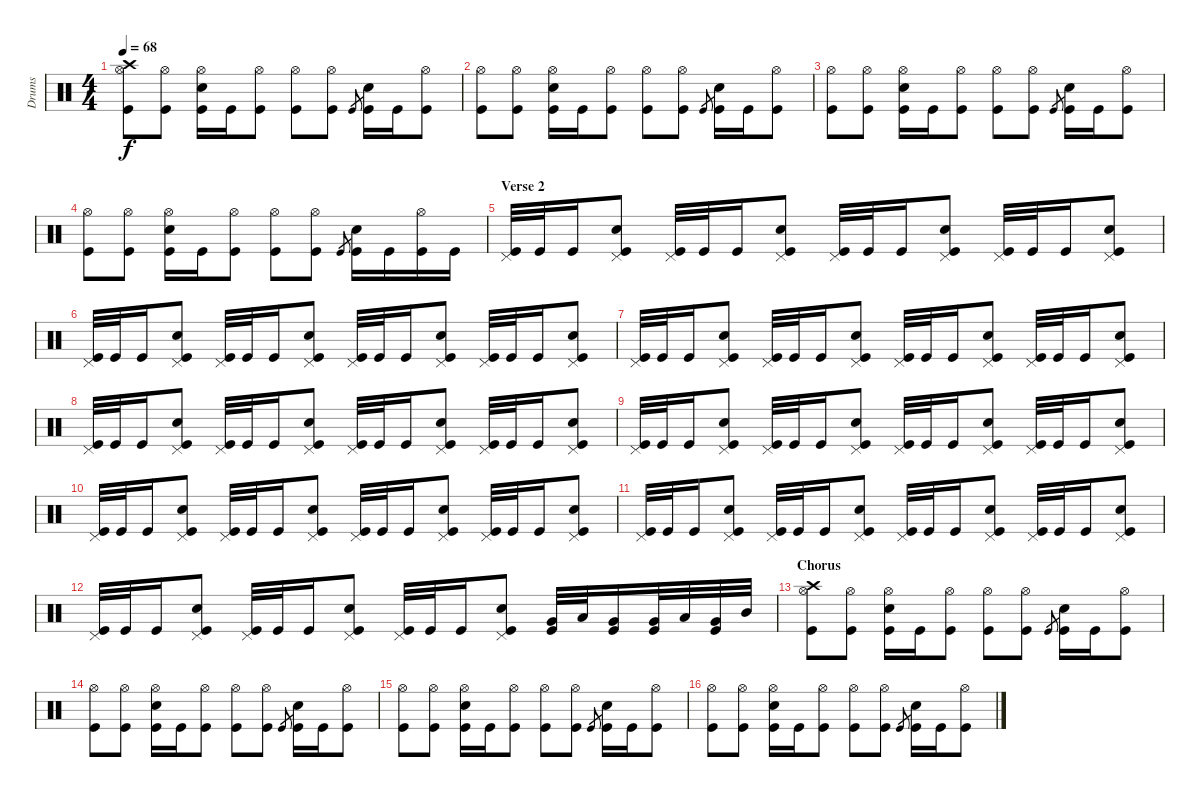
\track ("Drums" "Drums") {instrument percussion}
\staff {score}
\articulation defaults
\ts (4 4)
\section ("" "")
\tempo 68
\clef neutral
\ks c
("Crash high (hit)" "Hi-Hat (open)" "Kick (hit)").8{dy f} ("Hi-Hat (open)" "Kick (hit)").8 ("Hi-Hat (open)" "Snare (hit) 2" "Kick (hit)").16 "Kick (hit)".16 ("Hi-Hat (open)" "Kick (hit)").8 ("Hi-Hat (open)" "Kick (hit)").8 ("Hi-Hat (open)" "Kick (hit)").8 "Kick (hit)".8{gr} ("Snare (hit) 2" "Kick (hit)").16 "Kick (hit)".16 ("Hi-Hat (open)" "Kick (hit)").8 |
("Hi-Hat (open)" "Kick (hit)").8 ("Hi-Hat (open)" "Kick (hit)").8 ("Hi-Hat (open)" "Snare (hit) 2" "Kick (hit)").16 "Kick (hit)".16 ("Hi-Hat (open)" "Kick (hit)").8 ("Hi-Hat (open)" "Kick (hit)").8 ("Hi-Hat (open)" "Kick (hit)").8 "Kick (hit)".8{gr} ("Snare (hit) 2" "Kick (hit)").16 "Kick (hit)".16 ("Hi-Hat (open)" "Kick (hit)").8 |
("Hi-Hat (open)" "Kick (hit)").8 ("Hi-Hat (open)" "Kick (hit)").8 ("Hi-Hat (open)" "Snare (hit) 2" "Kick (hit)").16 "Kick (hit)".16 ("Hi-Hat (open)" "Kick (hit)").8 ("Hi-Hat (open)" "Kick (hit)").8 ("Hi-Hat (open)" "Kick (hit)").8 "Kick (hit)".8{gr} ("Snare (hit) 2" "Kick (hit)").16 "Kick (hit)".16 ("Hi-Hat (open)" "Kick (hit)").8 |
("Hi-Hat (open)" "Kick (hit)").8 ("Hi-Hat (open)" "Kick (hit)").8 ("Hi-Hat (open)" "Snare (hit) 2" "Kick (hit)").16 "Kick (hit)".16 ("Hi-Hat (open)" "Kick (hit)").8 ("Hi-Hat (open)" "Kick (hit)").8 ("Hi-Hat (open)" "Kick (hit)").8 "Kick (hit)".8{gr} ("Snare (hit) 2" "Kick (hit)").16 "Kick (hit)".16 ("Hi-Hat (open)" "Kick (hit)").16 "Kick (hit)".16 |
\section ("" "Verse 2")
("Pedal Hi-Hat (hit)" "Kick (hit)").32 "Kick (hit)".32 "Kick (hit)".16 ("Pedal Hi-Hat (hit)" "Snare (hit) 2" "Kick (hit)").8 ("Pedal Hi-Hat (hit)" "Kick (hit)").32 "Kick (hit)".32 "Kick (hit)".16 ("Pedal Hi-Hat (hit)" "Snare (hit) 2" "Kick (hit)").8 ("Pedal Hi-Hat (hit)" "Kick (hit)").32 "Kick (hit)".32 "Kick (hit)".16 ("Pedal Hi-Hat (hit)" "Snare (hit) 2" "Kick (hit)").8 ("Pedal Hi-Hat (hit)" "Kick (hit)").32 "Kick (hit)".32 "Kick (hit)".16 ("Pedal Hi-Hat (hit)" "Snare (hit) 2" "Kick (hit)").8 |
("Pedal Hi-Hat (hit)" "Kick (hit)").32 "Kick (hit)".32 "Kick (hit)".16 ("Pedal Hi-Hat (hit)" "Snare (hit) 2" "Kick (hit)").8 ("Pedal Hi-Hat (hit)" "Kick (hit)").32 "Kick (hit)".32 "Kick (hit)".16 ("Pedal Hi-Hat (hit)" "Snare (hit) 2" "Kick (hit)").8 ("Pedal Hi-Hat (hit)" "Kick (hit)").32 "Kick (hit)".32 "Kick (hit)".16 ("Pedal Hi-Hat (hit)" "Snare (hit) 2" "Kick (hit)").8 ("Pedal Hi-Hat (hit)" "Kick (hit)").32 "Kick (hit)".32 "Kick (hit)".16 ("Pedal Hi-Hat (hit)" "Snare (hit) 2" "Kick (hit)").8 |
("Pedal Hi-Hat (hit)" "Kick (hit)").32 "Kick (hit)".32 "Kick (hit)".16 ("Pedal Hi-Hat (hit)" "Snare (hit) 2" "Kick (hit)").8 ("Pedal Hi-Hat (hit)" "Kick (hit)").32 "Kick (hit)".32 "Kick (hit)".16 ("Pedal Hi-Hat (hit)" "Snare (hit) 2" "Kick (hit)").8 ("Pedal Hi-Hat (hit)" "Kick (hit)").32 "Kick (hit)".32 "Kick (hit)".16 ("Pedal Hi-Hat (hit)" "Snare (hit) 2" "Kick (hit)").8 ("Pedal Hi-Hat (hit)" "Kick (hit)").32 "Kick (hit)".32 "Kick (hit)".16 ("Pedal Hi-Hat (hit)" "Snare (hit) 2" "Kick (hit)").8 |
("Pedal Hi-Hat (hit)" "Kick (hit)").32 "Kick (hit)".32 "Kick (hit)".16 ("Pedal Hi-Hat (hit)" "Snare (hit) 2" "Kick (hit)").8 ("Pedal Hi-Hat (hit)" "Kick (hit)").32 "Kick (hit)".32 "Kick (hit)".16 ("Pedal Hi-Hat (hit)" "Snare (hit) 2" "Kick (hit)").8 ("Pedal Hi-Hat (hit)" "Kick (hit)").32 "Kick (hit)".32 "Kick (hit)".16 ("Pedal Hi-Hat (hit)" "Snare (hit) 2" "Kick (hit)").8 ("Pedal Hi-Hat (hit)" "Kick (hit)").32 "Kick (hit)".32 "Kick (hit)".16 ("Pedal Hi-Hat (hit)" "Snare (hit) 2" "Kick (hit)").8 |
("Pedal Hi-Hat (hit)" "Kick (hit)").32 "Kick (hit)".32 "Kick (hit)".16 ("Pedal Hi-Hat (hit)" "Snare (hit) 2" "Kick (hit)").8 ("Pedal Hi-Hat (hit)" "Kick (hit)").32 "Kick (hit)".32 "Kick (hit)".16 ("Pedal Hi-Hat (hit)" "Snare (hit) 2" "Kick (hit)").8 ("Pedal Hi-Hat (hit)" "Kick (hit)").32 "Kick (hit)".32 "Kick (hit)".16 ("Pedal Hi-Hat (hit)" "Snare (hit) 2" "Kick (hit)").8 ("Pedal Hi-Hat (hit)" "Kick (hit)").32 "Kick (hit)".32 "Kick (hit)".16 ("Pedal Hi-Hat (hit)" "Snare (hit) 2" "Kick (hit)").8 |
("Pedal Hi-Hat (hit)" "Kick (hit)").32 "Kick (hit)".32 "Kick (hit)".16 ("Pedal Hi-Hat (hit)" "Snare (hit) 2" "Kick (hit)").8 ("Pedal Hi-Hat (hit)" "Kick (hit)").32 "Kick (hit)".32 "Kick (hit)".16 ("Pedal Hi-Hat (hit)" "Snare (hit) 2" "Kick (hit)").8 ("Pedal Hi-Hat (hit)" "Kick (hit)").32 "Kick (hit)".32 "Kick (hit)".16 ("Pedal Hi-Hat (hit)" "Snare (hit) 2" "Kick (hit)").8 ("Pedal Hi-Hat (hit)" "Kick (hit)").32 "Kick (hit)".32 "Kick (hit)".16 ("Pedal Hi-Hat (hit)" "Snare (hit) 2" "Kick (hit)").8 |
("Pedal Hi-Hat (hit)" "Kick (hit)").32 "Kick (hit)".32 "Kick (hit)".16 ("Pedal Hi-Hat (hit)" "Snare (hit) 2" "Kick (hit)").8 ("Pedal Hi-Hat (hit)" "Kick (hit)").32 "Kick (hit)".32 "Kick (hit)".16 ("Pedal Hi-Hat (hit)" "Snare (hit) 2" "Kick (hit)").8 ("Pedal Hi-Hat (hit)" "Kick (hit)").32 "Kick (hit)".32 "Kick (hit)".16 ("Pedal Hi-Hat (hit)" "Snare (hit) 2" "Kick (hit)").8 ("Pedal Hi-Hat (hit)" "Kick (hit)").32 "Kick (hit)".32 "Kick (hit)".16 ("Pedal Hi-Hat (hit)" "Snare (hit) 2" "Kick (hit)").8 |
("Pedal Hi-Hat (hit)" "Kick (hit)").32 "Kick (hit)".32 "Kick (hit)".16 ("Pedal Hi-Hat (hit)" "Snare (hit) 2" "Kick (hit)").8 ("Pedal Hi-Hat (hit)" "Kick (hit)").32 "Kick (hit)".32 "Kick (hit)".16 ("Pedal Hi-Hat (hit)" "Snare (hit) 2" "Kick (hit)").8 ("Pedal Hi-Hat (hit)" "Kick (hit)").32 "Kick (hit)".32 "Kick (hit)".16 ("Pedal Hi-Hat (hit)" "Snare (hit) 2" "Kick (hit)").8 ("Very Low Tom (hit)" "Kick (hit)").32 "Low Tom (hit)".32 ("Very Low Tom (hit)" "Kick (hit)").16 ("Very Low Tom (hit)" "Kick (hit)").32 "Low Tom (hit)".32 ("Very Low Tom (hit)" "Kick (hit)").32 "Mid Tom (hit)".32 |
\section ("" "Chorus")
("Crash high (hit)" "Hi-Hat (open)" "Kick (hit)").8 ("Hi-Hat (open)" "Kick (hit)").8 ("Hi-Hat (open)" "Snare (hit) 2" "Kick (hit)").16 "Kick (hit)".16 ("Hi-Hat (open)" "Kick (hit)").8 ("Hi-Hat (open)" "Kick (hit)").8 ("Hi-Hat (open)" "Kick (hit)").8 "Kick (hit)".8{gr} ("Snare (hit) 2" "Kick (hit)").16 "Kick (hit)".16 ("Hi-Hat (open)" "Kick (hit)").8 |
("Hi-Hat (open)" "Kick (hit)").8 ("Hi-Hat (open)" "Kick (hit)").8 ("Hi-Hat (open)" "Snare (hit) 2" "Kick (hit)").16 "Kick (hit)".16 ("Hi-Hat (open)" "Kick (hit)").8 ("Hi-Hat (open)" "Kick (hit)").8 ("Hi-Hat (open)" "Kick (hit)").8 "Kick (hit)".8{gr} ("Snare (hit) 2" "Kick (hit)").16 "Kick (hit)".16 ("Hi-Hat (open)" "Kick (hit)").8 |
("Hi-Hat (open)" "Kick (hit)").8 ("Hi-Hat (open)" "Kick (hit)").8 ("Hi-Hat (open)" "Snare (hit) 2" "Kick (hit)").16 "Kick (hit)".16 ("Hi-Hat (open)" "Kick (hit)").8 ("Hi-Hat (open)" "Kick (hit)").8 ("Hi-Hat (open)" "Kick (hit)").8 "Kick (hit)".8{gr} ("Snare (hit) 2" "Kick (hit)").16 "Kick (hit)".16 ("Hi-Hat (open)" "Kick (hit)").8 |
("Hi-Hat (open)" "Kick (hit)").8 ("Hi-Hat (open)" "Kick (hit)").8 ("Hi-Hat (open)" "Snare (hit) 2" "Kick (hit)").16 "Kick (hit)".16 ("Hi-Hat (open)" "Kick (hit)").8 ("Hi-Hat (open)" "Kick (hit)").8 ("Hi-Hat (open)" "Kick (hit)").8 "Kick (hit)".8{gr} ("Snare (hit) 2" "Kick (hit)").16 "Kick (hit)".16 ("Hi-Hat (open)" "Kick (hit)").8
